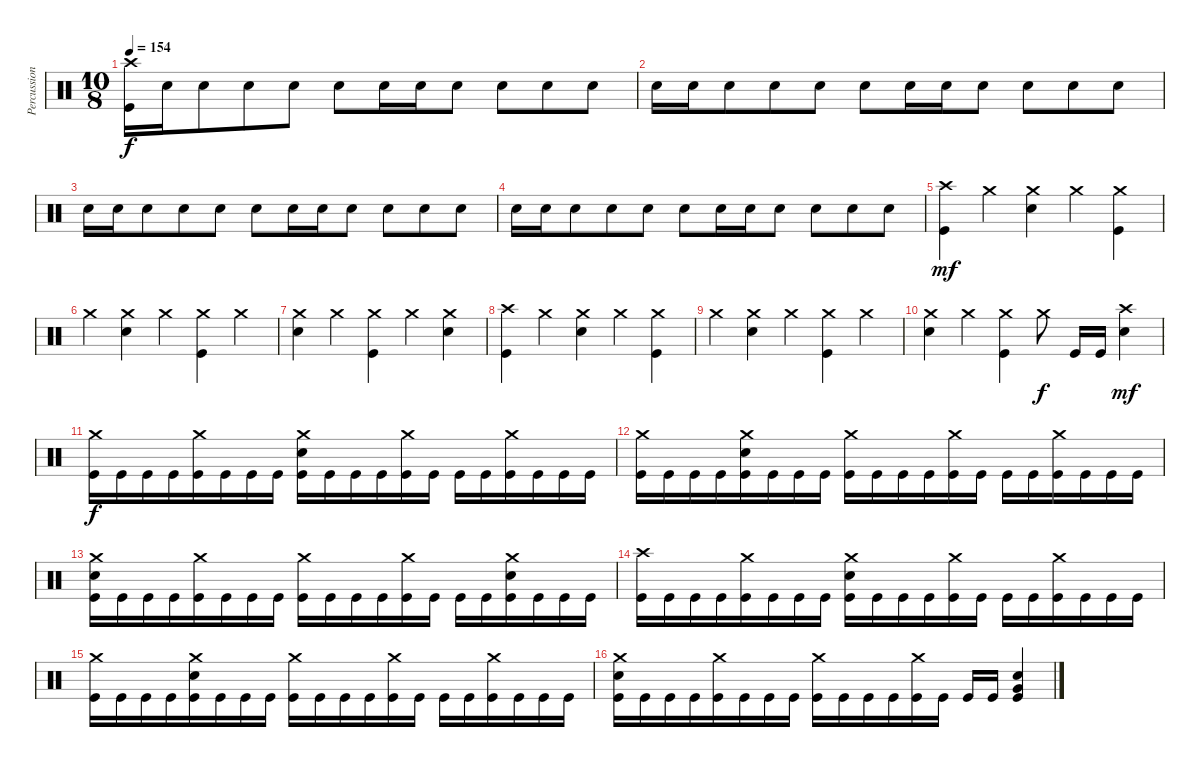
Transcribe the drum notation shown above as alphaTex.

\track ("Percussion" "Percussion") {instrument percussion}
\staff {score}
\articulation defaults
\ts (10 8)
\tempo 154
\clef neutral
\ks c
("Crash high (hit)" "Kick (hit)").16{dy f} "Electric Snare (hit)".16 "Electric Snare (hit)".8 "Electric Snare (hit)".8 "Electric Snare (hit)".8 "Electric Snare (hit)".8 "Electric Snare (hit)".16 "Electric Snare (hit)".16 "Electric Snare (hit)".8 "Electric Snare (hit)".8 "Electric Snare (hit)".8 "Electric Snare (hit)".8 |
"Electric Snare (hit)".16 "Electric Snare (hit)".16 "Electric Snare (hit)".8 "Electric Snare (hit)".8 "Electric Snare (hit)".8 "Electric Snare (hit)".8 "Electric Snare (hit)".16 "Electric Snare (hit)".16 "Electric Snare (hit)".8 "Electric Snare (hit)".8 "Electric Snare (hit)".8 "Electric Snare (hit)".8 |
"Electric Snare (hit)".16 "Electric Snare (hit)".16 "Electric Snare (hit)".8 "Electric Snare (hit)".8 "Electric Snare (hit)".8 "Electric Snare (hit)".8 "Electric Snare (hit)".16 "Electric Snare (hit)".16 "Electric Snare (hit)".8 "Electric Snare (hit)".8 "Electric Snare (hit)".8 "Electric Snare (hit)".8 |
"Electric Snare (hit)".16 "Electric Snare (hit)".16 "Electric Snare (hit)".8 "Electric Snare (hit)".8 "Electric Snare (hit)".8 "Electric Snare (hit)".8 "Electric Snare (hit)".16 "Electric Snare (hit)".16 "Electric Snare (hit)".8 "Electric Snare (hit)".8 "Electric Snare (hit)".8 "Electric Snare (hit)".8 |
("Crash high (hit)" "Kick (hit)").4{dy mf} "Crash medium (hit)".4 ("Crash medium (hit)" "Electric Snare (hit)").4 "Crash medium (hit)".4 ("Crash medium (hit)" "Kick (hit)").4 |
"Crash medium (hit)".4 ("Crash medium (hit)" "Electric Snare (hit)").4 "Crash medium (hit)".4 ("Crash medium (hit)" "Kick (hit)").4 "Crash medium (hit)".4 |
("Crash medium (hit)" "Electric Snare (hit)").4 "Crash medium (hit)".4 ("Crash medium (hit)" "Kick (hit)").4 "Crash medium (hit)".4 ("Crash medium (hit)" "Electric Snare (hit)").4 |
("Crash high (hit)" "Kick (hit)").4 "Crash medium (hit)".4 ("Crash medium (hit)" "Electric Snare (hit)").4 "Crash medium (hit)".4 ("Crash medium (hit)" "Kick (hit)").4 |
"Crash medium (hit)".4 ("Crash medium (hit)" "Electric Snare (hit)").4 "Crash medium (hit)".4 ("Crash medium (hit)" "Kick (hit)").4 "Crash medium (hit)".4 |
("Crash medium (hit)" "Electric Snare (hit)").4 "Crash medium (hit)".4 ("Crash medium (hit)" "Kick (hit)").4 "Crash medium (hit)".8{dy f} "Kick (hit)".16 "Kick (hit)".16 ("Crash high (hit)" "Electric Snare (hit)").4{dy mf} |
("Crash medium (hit)" "Kick (hit)").16{dy f} "Kick (hit)".16 "Kick (hit)".16 "Kick (hit)".16 ("Crash medium (hit)" "Kick (hit)").16 "Kick (hit)".16 "Kick (hit)".16 "Kick (hit)".16 ("Crash medium (hit)" "Electric Snare (hit)" "Kick (hit)").16 "Kick (hit)".16 "Kick (hit)".16 "Kick (hit)".16 ("Crash medium (hit)" "Kick (hit)").16 "Kick (hit)".16 "Kick (hit)".16 "Kick (hit)".16 ("Crash medium (hit)" "Kick (hit)").16 "Kick (hit)".16 "Kick (hit)".16 "Kick (hit)".16 |
("Crash medium (hit)" "Kick (hit)").16 "Kick (hit)".16 "Kick (hit)".16 "Kick (hit)".16 ("Crash medium (hit)" "Electric Snare (hit)" "Kick (hit)").16 "Kick (hit)".16 "Kick (hit)".16 "Kick (hit)".16 ("Crash medium (hit)" "Kick (hit)").16 "Kick (hit)".16 "Kick (hit)".16 "Kick (hit)".16 ("Crash medium (hit)" "Kick (hit)").16 "Kick (hit)".16 "Kick (hit)".16 "Kick (hit)".16 ("Crash medium (hit)" "Kick (hit)").16 "Kick (hit)".16 "Kick (hit)".16 "Kick (hit)".16 |
("Crash medium (hit)" "Electric Snare (hit)" "Kick (hit)").16 "Kick (hit)".16 "Kick (hit)".16 "Kick (hit)".16 ("Crash medium (hit)" "Kick (hit)").16 "Kick (hit)".16 "Kick (hit)".16 "Kick (hit)".16 ("Crash medium (hit)" "Kick (hit)").16 "Kick (hit)".16 "Kick (hit)".16 "Kick (hit)".16 ("Crash medium (hit)" "Kick (hit)").16 "Kick (hit)".16 "Kick (hit)".16 "Kick (hit)".16 ("Crash medium (hit)" "Electric Snare (hit)" "Kick (hit)").16 "Kick (hit)".16 "Kick (hit)".16 "Kick (hit)".16 |
("Crash high (hit)" "Kick (hit)").16 "Kick (hit)".16 "Kick (hit)".16 "Kick (hit)".16 ("Crash medium (hit)" "Kick (hit)").16 "Kick (hit)".16 "Kick (hit)".16 "Kick (hit)".16 ("Crash medium (hit)" "Electric Snare (hit)" "Kick (hit)").16 "Kick (hit)".16 "Kick (hit)".16 "Kick (hit)".16 ("Crash medium (hit)" "Kick (hit)").16 "Kick (hit)".16 "Kick (hit)".16 "Kick (hit)".16 ("Crash medium (hit)" "Kick (hit)").16 "Kick (hit)".16 "Kick (hit)".16 "Kick (hit)".16 |
("Crash medium (hit)" "Kick (hit)").16 "Kick (hit)".16 "Kick (hit)".16 "Kick (hit)".16 ("Crash medium (hit)" "Electric Snare (hit)" "Kick (hit)").16 "Kick (hit)".16 "Kick (hit)".16 "Kick (hit)".16 ("Crash medium (hit)" "Kick (hit)").16 "Kick (hit)".16 "Kick (hit)".16 "Kick (hit)".16 ("Crash medium (hit)" "Kick (hit)").16 "Kick (hit)".16 "Kick (hit)".16 "Kick (hit)".16 ("Crash medium (hit)" "Kick (hit)").16 "Kick (hit)".16 "Kick (hit)".16 "Kick (hit)".16 |
("Crash medium (hit)" "Electric Snare (hit)" "Kick (hit)").16 "Kick (hit)".16 "Kick (hit)".16 "Kick (hit)".16 ("Crash medium (hit)" "Kick (hit)").16 "Kick (hit)".16 "Kick (hit)".16 "Kick (hit)".16 ("Crash medium (hit)" "Kick (hit)").16 "Kick (hit)".16 "Kick (hit)".16 "Kick (hit)".16 ("Crash medium (hit)" "Kick (hit)").16 "Kick (hit)".16 "Kick (hit)".16 "Kick (hit)".16 ("Very Low Tom (hit)" "Electric Snare (hit)" "Kick (hit)").4
